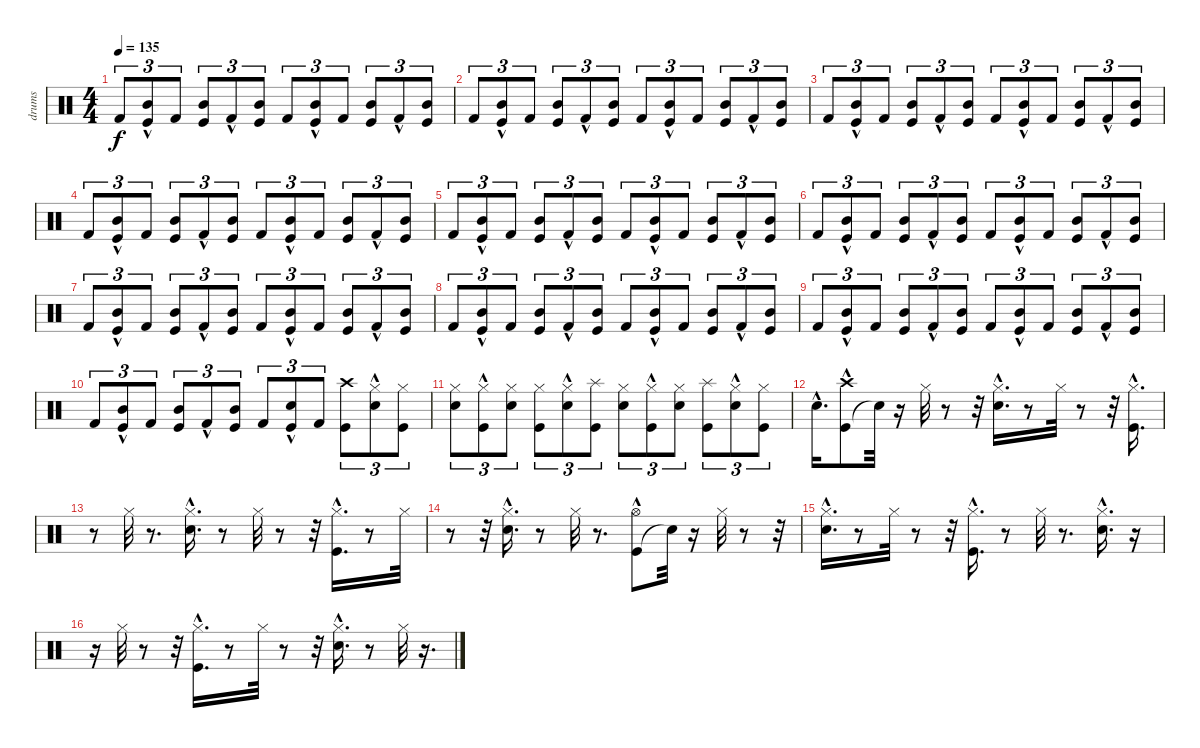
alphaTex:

\track ("drums" "drums") {instrument percussion}
\staff {score}
\articulation defaults
\ts (4 4)
\tempo 135
\clef neutral
\ks c "Kick (hit) 2".8{tu (3 2) dy f}
("Kick (hit)"{hac} "Mid Tom (hit)"{hac}).8{tu (3 2)} "Kick (hit) 2".8{tu (3 2)} ("Mid Tom (hit)" "Kick (hit)").8{tu (3 2)} "Kick (hit) 2"{hac}.8{tu (3 2)} ("Mid Tom (hit)" "Kick (hit)").8{tu (3 2)} "Kick (hit) 2".8{tu (3 2)} ("Mid Tom (hit)"{hac} "Kick (hit)"{hac}).8{tu (3 2)} "Kick (hit) 2".8{tu (3 2)} ("Mid Tom (hit)" "Kick (hit)").8{tu (3 2)} "Kick (hit) 2"{hac}.8{tu (3 2)} ("Kick (hit)" "Mid Tom (hit)").8{tu (3 2)} |
"Kick (hit) 2".8{tu (3 2)} ("Kick (hit)"{hac} "Mid Tom (hit)"{hac}).8{tu (3 2)} "Kick (hit) 2".8{tu (3 2)} ("Kick (hit)" "Mid Tom (hit)").8{tu (3 2)} "Kick (hit) 2"{hac}.8{tu (3 2)} ("Mid Tom (hit)" "Kick (hit)").8{tu (3 2)} "Kick (hit) 2".8{tu (3 2)} ("Mid Tom (hit)"{hac} "Kick (hit)"{hac}).8{tu (3 2)} "Kick (hit) 2".8{tu (3 2)} ("Mid Tom (hit)" "Kick (hit)").8{tu (3 2)} "Kick (hit) 2"{hac}.8{tu (3 2)} ("Kick (hit)" "Mid Tom (hit)").8{tu (3 2)} |
"Kick (hit) 2".8{tu (3 2)} ("Mid Tom (hit)"{hac} "Kick (hit)"{hac}).8{tu (3 2)} "Kick (hit) 2".8{tu (3 2)} ("Kick (hit)" "Mid Tom (hit)").8{tu (3 2)} "Kick (hit) 2"{hac}.8{tu (3 2)} ("Kick (hit)" "Mid Tom (hit)").8{tu (3 2)} "Kick (hit) 2".8{tu (3 2)} ("Kick (hit)"{hac} "Mid Tom (hit)"{hac}).8{tu (3 2)} "Kick (hit) 2".8{tu (3 2)} ("Kick (hit)" "Mid Tom (hit)").8{tu (3 2)} "Kick (hit) 2"{hac}.8{tu (3 2)} ("Kick (hit)" "Mid Tom (hit)").8{tu (3 2)} |
"Kick (hit) 2".8{tu (3 2)} ("Mid Tom (hit)"{hac} "Kick (hit)"{hac}).8{tu (3 2)} "Kick (hit) 2".8{tu (3 2)} ("Mid Tom (hit)" "Kick (hit)").8{tu (3 2)} "Kick (hit) 2"{hac}.8{tu (3 2)} ("Mid Tom (hit)" "Kick (hit)").8{tu (3 2)} "Kick (hit) 2".8{tu (3 2)} ("Mid Tom (hit)"{hac} "Kick (hit)"{hac}).8{tu (3 2)} "Kick (hit) 2".8{tu (3 2)} ("Kick (hit)" "Mid Tom (hit)").8{tu (3 2)} "Kick (hit) 2"{hac}.8{tu (3 2)} ("Kick (hit)" "Mid Tom (hit)").8{tu (3 2)} |
"Kick (hit) 2".8{tu (3 2)} ("Kick (hit)"{hac} "Mid Tom (hit)"{hac}).8{tu (3 2)} "Kick (hit) 2".8{tu (3 2)} ("Mid Tom (hit)" "Kick (hit)").8{tu (3 2)} "Kick (hit) 2"{hac}.8{tu (3 2)} ("Mid Tom (hit)" "Kick (hit)").8{tu (3 2)} "Kick (hit) 2".8{tu (3 2)} ("Mid Tom (hit)"{hac} "Kick (hit)"{hac}).8{tu (3 2)} "Kick (hit) 2".8{tu (3 2)} ("Kick (hit)" "Mid Tom (hit)").8{tu (3 2)} "Kick (hit) 2"{hac}.8{tu (3 2)} ("Mid Tom (hit)" "Kick (hit)").8{tu (3 2)} |
"Kick (hit) 2".8{tu (3 2)} ("Kick (hit)"{hac} "Mid Tom (hit)"{hac}).8{tu (3 2)} "Kick (hit) 2".8{tu (3 2)} ("Kick (hit)" "Mid Tom (hit)").8{tu (3 2)} "Kick (hit) 2"{hac}.8{tu (3 2)} ("Kick (hit)" "Mid Tom (hit)").8{tu (3 2)} "Kick (hit) 2".8{tu (3 2)} ("Kick (hit)"{hac} "Mid Tom (hit)"{hac}).8{tu (3 2)} "Kick (hit) 2".8{tu (3 2)} ("Kick (hit)" "Mid Tom (hit)").8{tu (3 2)} "Kick (hit) 2"{hac}.8{tu (3 2)} ("Mid Tom (hit)" "Kick (hit)").8{tu (3 2)} |
"Kick (hit) 2".8{tu (3 2)} ("Mid Tom (hit)"{hac} "Kick (hit)"{hac}).8{tu (3 2)} "Kick (hit) 2".8{tu (3 2)} ("Mid Tom (hit)" "Kick (hit)").8{tu (3 2)} "Kick (hit) 2"{hac}.8{tu (3 2)} ("Mid Tom (hit)" "Kick (hit)").8{tu (3 2)} "Kick (hit) 2".8{tu (3 2)} ("Kick (hit)"{hac} "Mid Tom (hit)"{hac}).8{tu (3 2)} "Kick (hit) 2".8{tu (3 2)} ("Kick (hit)" "Mid Tom (hit)").8{tu (3 2)} "Kick (hit) 2"{hac}.8{tu (3 2)} ("Kick (hit)" "Mid Tom (hit)").8{tu (3 2)} |
"Kick (hit) 2".8{tu (3 2)} ("Mid Tom (hit)"{hac} "Kick (hit)"{hac}).8{tu (3 2)} "Kick (hit) 2".8{tu (3 2)} ("Mid Tom (hit)" "Kick (hit)").8{tu (3 2)} "Kick (hit) 2"{hac}.8{tu (3 2)} ("Mid Tom (hit)" "Kick (hit)").8{tu (3 2)} "Kick (hit) 2".8{tu (3 2)} ("Kick (hit)"{hac} "Mid Tom (hit)"{hac}).8{tu (3 2)} "Kick (hit) 2".8{tu (3 2)} ("Mid Tom (hit)" "Kick (hit)").8{tu (3 2)} "Kick (hit) 2"{hac}.8{tu (3 2)} ("Kick (hit)" "Mid Tom (hit)").8{tu (3 2)} |
"Kick (hit) 2".8{tu (3 2)} ("Kick (hit)"{hac} "Mid Tom (hit)"{hac}).8{tu (3 2)} "Kick (hit) 2".8{tu (3 2)} ("Kick (hit)" "Mid Tom (hit)").8{tu (3 2)} "Kick (hit) 2"{hac}.8{tu (3 2)} ("Kick (hit)" "Mid Tom (hit)").8{tu (3 2)} "Kick (hit) 2".8{tu (3 2)} ("Kick (hit)"{hac} "Mid Tom (hit)"{hac}).8{tu (3 2)} "Kick (hit) 2".8{tu (3 2)} ("Mid Tom (hit)" "Kick (hit)").8{tu (3 2)} "Kick (hit) 2"{hac}.8{tu (3 2)} ("Mid Tom (hit)" "Kick (hit)").8{tu (3 2)} |
"Kick (hit) 2".8{tu (3 2)} ("Mid Tom (hit)"{hac} "Kick (hit)"{hac}).8{tu (3 2)} "Kick (hit) 2".8{tu (3 2)} ("Mid Tom (hit)" "Kick (hit)").8{tu (3 2)} "Kick (hit) 2"{hac}.8{tu (3 2)} ("Kick (hit)" "Mid Tom (hit)").8{tu (3 2)} "Kick (hit) 2".8{tu (3 2)} ("Kick (hit)"{hac} "Snare (hit) 2"{hac}).8{tu (3 2)} "Kick (hit) 2".8{tu (3 2)} ("Kick (hit)" "Crash high (hit)").8{tu (3 2)} ("Snare (hit) 2"{hac} "Hi-Hat (closed)").8{tu (3 2)} ("Hi-Hat (closed)" "Kick (hit)").8{tu (3 2)} |
("Hi-Hat (closed)" "Snare (hit) 2").8{tu (3 2)} ("Kick (hit)"{hac} "Hi-Hat (closed)").8{tu (3 2)} ("Hi-Hat (closed)" "Snare (hit) 2").8{tu (3 2)} ("Hi-Hat (closed)" "Kick (hit)").8{tu (3 2)} ("Hi-Hat (closed)" "Snare (hit) 2"{hac}).8{tu (3 2)} ("Kick (hit)" "Splash (hit)").8{tu (3 2)} ("Snare (hit) 2" "Hi-Hat (closed)").8{tu (3 2)} ("Hi-Hat (closed)" "Kick (hit)"{hac}).8{tu (3 2)} ("Hi-Hat (closed)" "Snare (hit) 2").8{tu (3 2)} ("Kick (hit)" "Splash (hit)").8{tu (3 2)} ("Hi-Hat (closed)" "Snare (hit) 2"{hac}).8{tu (3 2)} ("Kick (hit)" "Hi-Hat (closed)").8{tu (3 2)} |
"Snare (hit) 2"{hac}.16{d} ("Kick (hit)"{hac} "Crash high (hit)").8 "Snare (hit)"{t}.32 r.16 "Hi-Hat (closed)".32 r.8 r.32 ("Snare (hit) 2"{hac} "Hi-Hat (closed)").16{d} r.8 "Hi-Hat (closed)".32 r.8 r.32 ("Hi-Hat (closed)" "Kick (hit)"{hac}).16{d} |
r.8 "Hi-Hat (closed)".32 r.8{d} ("Snare (hit) 2"{hac} "Hi-Hat (closed)").16{d} r.8 "Hi-Hat (closed)".32 r.8 r.32 ("Kick (hit)"{hac} "Hi-Hat (closed)").16{d} r.8 "Hi-Hat (closed)".32 |
r.8 r.32 ("Hi-Hat (closed)" "Snare (hit) 2"{hac}).16{d} r.8 "Hi-Hat (closed)".32 r.8{d} ("Kick (hit)"{hac} "Hi-Hat (open)").8 "Snare (hit)"{t}.32 r.16 "Hi-Hat (closed)".32 r.8 r.32 |
("Snare (hit) 2"{hac} "Hi-Hat (closed)").16{d} r.8 "Hi-Hat (closed)".32 r.8 r.32 ("Hi-Hat (closed)" "Kick (hit)"{hac}).16{d} r.8 "Hi-Hat (closed)".32 r.8{d} ("Snare (hit) 2"{hac} "Hi-Hat (closed)").16{d} r.16 |
r.16 "Hi-Hat (closed)".32 r.8 r.32 ("Kick (hit)"{hac} "Hi-Hat (closed)").16{d} r.8 "Hi-Hat (closed)".32 r.8 r.32 ("Hi-Hat (closed)" "Snare (hit) 2"{hac}).16{d} r.8 "Hi-Hat (closed)".32 r.16{d}
